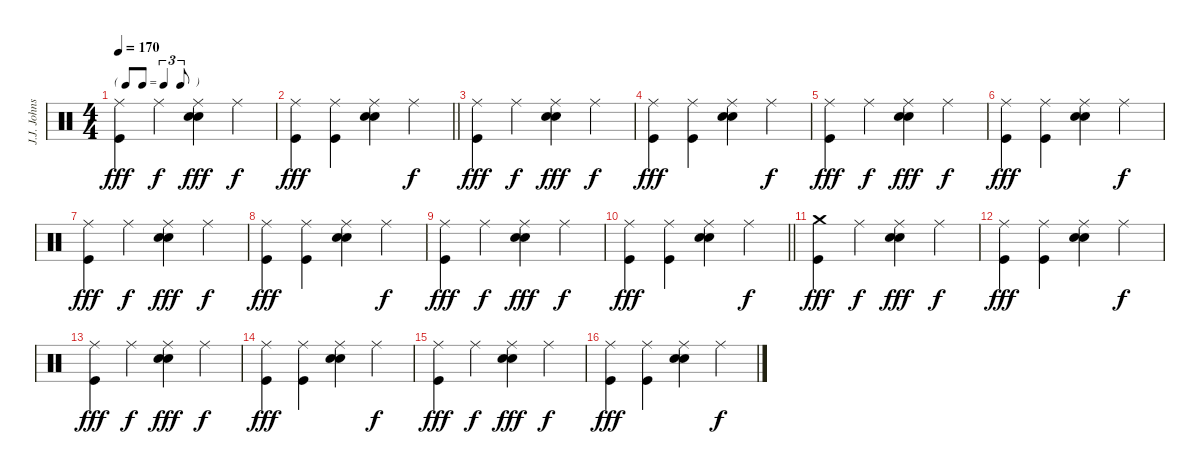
\track ("J.J. Johnson" "J.J. Johns") {instrument percussion}
\staff {score}
\articulation defaults
\ts (4 4)
\tf triplet8th
\tempo 170
\clef neutral
\ks c
("Ride (middle)" "Kick (hit)").4{dy fff} "Ride (middle)".4{dy f} ("Ride (middle)" "Electric Snare (hit)" "Snare (hit) 2").4{dy fff} "Ride (middle)".4{dy f} |
\barLineRight lightlight
("Ride (middle)" "Kick (hit)").4{dy fff} ("Ride (middle)" "Kick (hit)").4 ("Ride (middle)" "Snare (hit) 2" "Electric Snare (hit)").4 "Ride (middle)".4{dy f} |
("Ride (middle)" "Kick (hit)").4{dy fff} "Ride (middle)".4{dy f} ("Ride (middle)" "Electric Snare (hit)" "Snare (hit) 2").4{dy fff} "Ride (middle)".4{dy f} |
("Ride (middle)" "Kick (hit)").4{dy fff} ("Ride (middle)" "Kick (hit)").4 ("Ride (middle)" "Snare (hit) 2" "Electric Snare (hit)").4 "Ride (middle)".4{dy f} |
("Ride (middle)" "Kick (hit)").4{dy fff} "Ride (middle)".4{dy f} ("Ride (middle)" "Electric Snare (hit)" "Snare (hit) 2").4{dy fff} "Ride (middle)".4{dy f} |
("Ride (middle)" "Kick (hit)").4{dy fff} ("Ride (middle)" "Kick (hit)").4 ("Ride (middle)" "Snare (hit) 2" "Electric Snare (hit)").4 "Ride (middle)".4{dy f} |
("Ride (middle)" "Kick (hit)").4{dy fff} "Ride (middle)".4{dy f} ("Ride (middle)" "Electric Snare (hit)" "Snare (hit) 2").4{dy fff} "Ride (middle)".4{dy f} |
("Ride (middle)" "Kick (hit)").4{dy fff} ("Ride (middle)" "Kick (hit)").4 ("Ride (middle)" "Snare (hit) 2" "Electric Snare (hit)").4 "Ride (middle)".4{dy f} |
("Ride (middle)" "Kick (hit)").4{dy fff} "Ride (middle)".4{dy f} ("Ride (middle)" "Electric Snare (hit)" "Snare (hit) 2").4{dy fff} "Ride (middle)".4{dy f} |
\barLineRight lightlight
("Ride (middle)" "Kick (hit)").4{dy fff} ("Ride (middle)" "Kick (hit)").4 ("Ride (middle)" "Snare (hit) 2" "Electric Snare (hit)").4 "Ride (middle)".4{dy f} |
("Crash medium (hit)" "Kick (hit)").4{dy fff} "Ride (middle)".4{dy f} ("Ride (middle)" "Electric Snare (hit)" "Snare (hit) 2").4{dy fff} "Ride (middle)".4{dy f} |
("Ride (middle)" "Kick (hit)").4{dy fff} ("Ride (middle)" "Kick (hit)").4 ("Ride (middle)" "Snare (hit) 2" "Electric Snare (hit)").4 "Ride (middle)".4{dy f} |
("Ride (middle)" "Kick (hit)").4{dy fff} "Ride (middle)".4{dy f} ("Ride (middle)" "Electric Snare (hit)" "Snare (hit) 2").4{dy fff} "Ride (middle)".4{dy f} |
("Ride (middle)" "Kick (hit)").4{dy fff} ("Ride (middle)" "Kick (hit)").4 ("Ride (middle)" "Snare (hit) 2" "Electric Snare (hit)").4 "Ride (middle)".4{dy f} |
("Ride (middle)" "Kick (hit)").4{dy fff} "Ride (middle)".4{dy f} ("Ride (middle)" "Electric Snare (hit)" "Snare (hit) 2").4{dy fff} "Ride (middle)".4{dy f} |
("Ride (middle)" "Kick (hit)").4{dy fff} ("Ride (middle)" "Kick (hit)").4 ("Ride (middle)" "Snare (hit) 2" "Electric Snare (hit)").4 "Ride (middle)".4{dy f}
